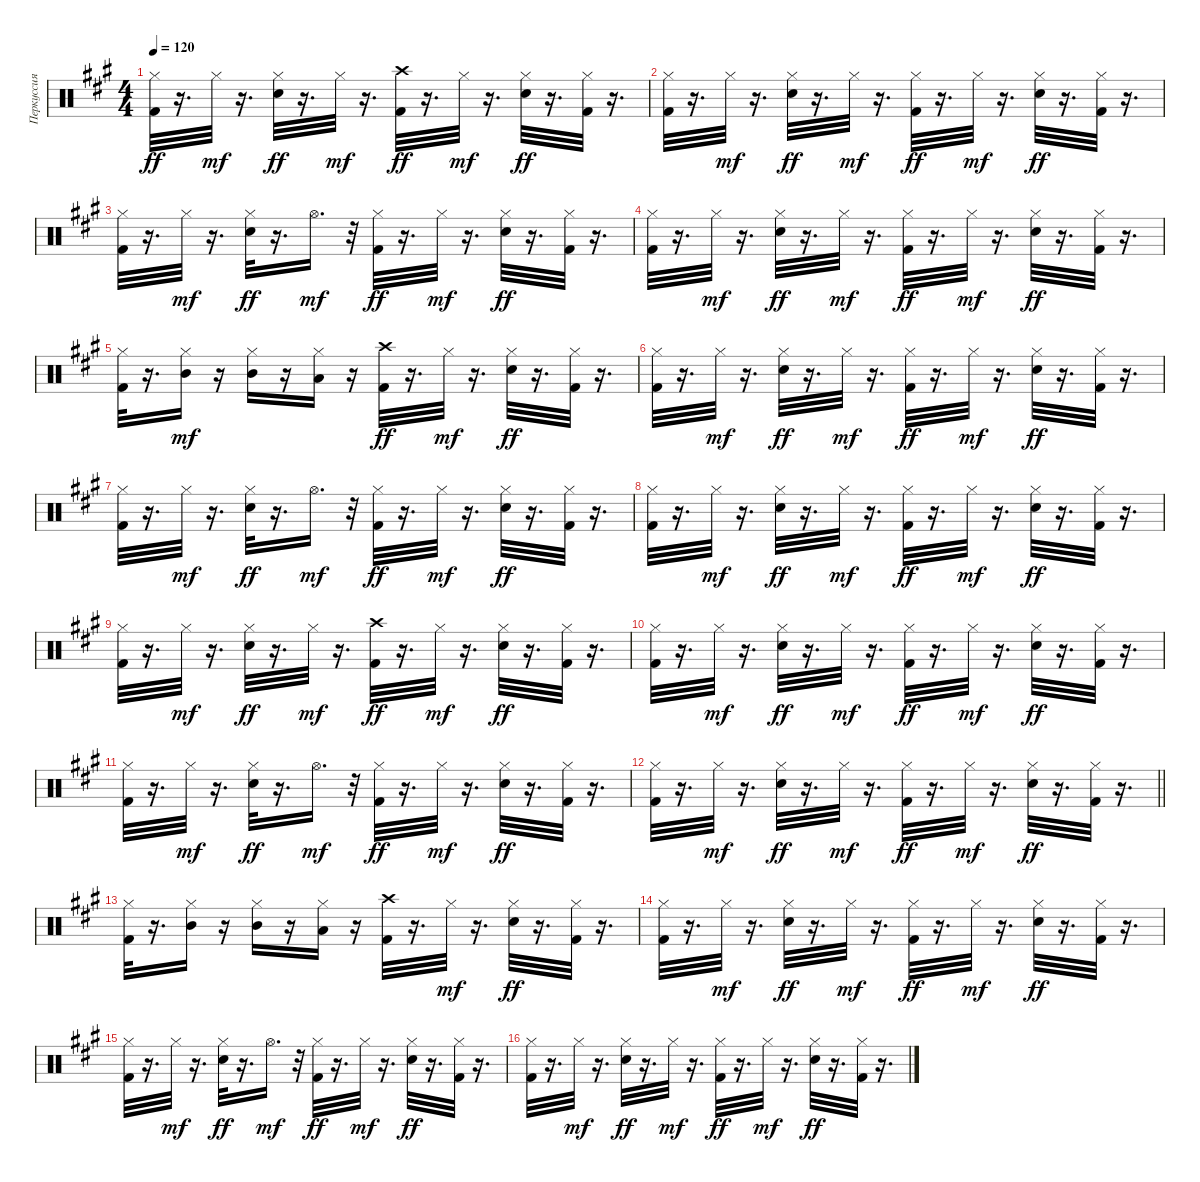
\track ("Перкуссия" "Перкуссия") {instrument percussion}
\staff {score}
\articulation defaults
\ts (4 4)
\tempo 120
\clef neutral
\ks f#minor
("Hi-Hat (closed)" "Kick (hit) 2").32{dy ff} r.16{d} "Hi-Hat (closed)".32{dy mf} r.16{d} ("Hi-Hat (closed)" "Snare (hit) 2").32{dy ff} r.16{d} "Hi-Hat (closed)".32{dy mf} r.16{d} ("Crash high (hit)" "Kick (hit) 2").32{dy ff} r.16{d} "Hi-Hat (closed)".32{dy mf} r.16{d} ("Hi-Hat (closed)" "Snare (hit) 2").32{dy ff} r.16{d} ("Hi-Hat (closed)" "Kick (hit) 2").32 r.16{d} |
("Hi-Hat (closed)" "Kick (hit) 2").32 r.16{d} "Hi-Hat (closed)".32{dy mf} r.16{d} ("Hi-Hat (closed)" "Snare (hit) 2").32{dy ff} r.16{d} "Hi-Hat (closed)".32{dy mf} r.16{d} ("Hi-Hat (closed)" "Kick (hit) 2").32{dy ff} r.16{d} "Hi-Hat (closed)".32{dy mf} r.16{d} ("Hi-Hat (closed)" "Snare (hit) 2").32{dy ff} r.16{d} ("Hi-Hat (closed)" "Kick (hit) 2").32 r.16{d} |
("Hi-Hat (closed)" "Kick (hit) 2").32 r.16{d} "Hi-Hat (closed)".32{dy mf} r.16{d} ("Hi-Hat (closed)" "Snare (hit) 2").32{dy ff} r.16{d} "Hi-Hat (open)".16{d dy mf} r.32 ("Hi-Hat (closed)" "Kick (hit) 2").32{dy ff} r.16{d} "Hi-Hat (closed)".32{dy mf} r.16{d} ("Hi-Hat (closed)" "Snare (hit) 2").32{dy ff} r.16{d} ("Hi-Hat (closed)" "Kick (hit) 2").32 r.16{d} |
("Hi-Hat (closed)" "Kick (hit) 2").32 r.16{d} "Hi-Hat (closed)".32{dy mf} r.16{d} ("Hi-Hat (closed)" "Snare (hit) 2").32{dy ff} r.16{d} "Hi-Hat (closed)".32{dy mf} r.16{d} ("Hi-Hat (closed)" "Kick (hit) 2").32{dy ff} r.16{d} "Hi-Hat (closed)".32{dy mf} r.16{d} ("Hi-Hat (closed)" "Snare (hit) 2").32{dy ff} r.16{d} ("Hi-Hat (closed)" "Kick (hit) 2").32 r.16{d} |
("Hi-Hat (closed)" "Kick (hit) 2").32 r.16{d} ("Hi-Hat (closed)" "Mid Tom (hit)").16{dy mf} r.16 ("Hi-Hat (closed)" "Mid Tom (hit)").16 r.16 ("Hi-Hat (closed)" "Low Tom (hit)").16 r.16 ("Crash high (hit)" "Kick (hit) 2").32{dy ff} r.16{d} "Hi-Hat (closed)".32{dy mf} r.16{d} ("Hi-Hat (closed)" "Snare (hit) 2").32{dy ff} r.16{d} ("Hi-Hat (closed)" "Kick (hit) 2").32 r.16{d} |
("Hi-Hat (closed)" "Kick (hit) 2").32 r.16{d} "Hi-Hat (closed)".32{dy mf} r.16{d} ("Hi-Hat (closed)" "Snare (hit) 2").32{dy ff} r.16{d} "Hi-Hat (closed)".32{dy mf} r.16{d} ("Hi-Hat (closed)" "Kick (hit) 2").32{dy ff} r.16{d} "Hi-Hat (closed)".32{dy mf} r.16{d} ("Hi-Hat (closed)" "Snare (hit) 2").32{dy ff} r.16{d} ("Hi-Hat (closed)" "Kick (hit) 2").32 r.16{d} |
("Hi-Hat (closed)" "Kick (hit) 2").32 r.16{d} "Hi-Hat (closed)".32{dy mf} r.16{d} ("Hi-Hat (closed)" "Snare (hit) 2").32{dy ff} r.16{d} "Hi-Hat (open)".16{d dy mf} r.32 ("Hi-Hat (closed)" "Kick (hit) 2").32{dy ff} r.16{d} "Hi-Hat (closed)".32{dy mf} r.16{d} ("Hi-Hat (closed)" "Snare (hit) 2").32{dy ff} r.16{d} ("Hi-Hat (closed)" "Kick (hit) 2").32 r.16{d} |
("Hi-Hat (closed)" "Kick (hit) 2").32 r.16{d} "Hi-Hat (closed)".32{dy mf} r.16{d} ("Hi-Hat (closed)" "Snare (hit) 2").32{dy ff} r.16{d} "Hi-Hat (closed)".32{dy mf} r.16{d} ("Hi-Hat (closed)" "Kick (hit) 2").32{dy ff} r.16{d} "Hi-Hat (closed)".32{dy mf} r.16{d} ("Hi-Hat (closed)" "Snare (hit) 2").32{dy ff} r.16{d} ("Hi-Hat (closed)" "Kick (hit) 2").32 r.16{d} |
("Hi-Hat (closed)" "Kick (hit) 2").32 r.16{d} "Hi-Hat (closed)".32{dy mf} r.16{d} ("Hi-Hat (closed)" "Snare (hit) 2").32{dy ff} r.16{d} "Hi-Hat (closed)".32{dy mf} r.16{d} ("Crash high (hit)" "Kick (hit) 2").32{dy ff} r.16{d} "Hi-Hat (closed)".32{dy mf} r.16{d} ("Hi-Hat (closed)" "Snare (hit) 2").32{dy ff} r.16{d} ("Hi-Hat (closed)" "Kick (hit) 2").32 r.16{d} |
("Hi-Hat (closed)" "Kick (hit) 2").32 r.16{d} "Hi-Hat (closed)".32{dy mf} r.16{d} ("Hi-Hat (closed)" "Snare (hit) 2").32{dy ff} r.16{d} "Hi-Hat (closed)".32{dy mf} r.16{d} ("Hi-Hat (closed)" "Kick (hit) 2").32{dy ff} r.16{d} "Hi-Hat (closed)".32{dy mf} r.16{d} ("Hi-Hat (closed)" "Snare (hit) 2").32{dy ff} r.16{d} ("Hi-Hat (closed)" "Kick (hit) 2").32 r.16{d} |
("Hi-Hat (closed)" "Kick (hit) 2").32 r.16{d} "Hi-Hat (closed)".32{dy mf} r.16{d} ("Hi-Hat (closed)" "Snare (hit) 2").32{dy ff} r.16{d} "Hi-Hat (open)".16{d dy mf} r.32 ("Hi-Hat (closed)" "Kick (hit) 2").32{dy ff} r.16{d} "Hi-Hat (closed)".32{dy mf} r.16{d} ("Hi-Hat (closed)" "Snare (hit) 2").32{dy ff} r.16{d} ("Hi-Hat (closed)" "Kick (hit) 2").32 r.16{d} |
\barLineRight lightlight
("Hi-Hat (closed)" "Kick (hit) 2").32 r.16{d} "Hi-Hat (closed)".32{dy mf} r.16{d} ("Hi-Hat (closed)" "Snare (hit) 2").32{dy ff} r.16{d} "Hi-Hat (closed)".32{dy mf} r.16{d} ("Hi-Hat (closed)" "Kick (hit) 2").32{dy ff} r.16{d} "Hi-Hat (closed)".32{dy mf} r.16{d} ("Hi-Hat (closed)" "Snare (hit) 2").32{dy ff} r.16{d} ("Hi-Hat (closed)" "Kick (hit) 2").32 r.16{d} |
("Hi-Hat (closed)" "Kick (hit) 2").32 r.16{d} ("Hi-Hat (closed)" "Mid Tom (hit)").16 r.16 ("Hi-Hat (closed)" "Mid Tom (hit)").16 r.16 ("Hi-Hat (closed)" "Low Tom (hit)").16 r.16 ("Crash high (hit)" "Kick (hit) 2").32 r.16{d} "Hi-Hat (closed)".32{dy mf} r.16{d} ("Hi-Hat (closed)" "Snare (hit) 2").32{dy ff} r.16{d} ("Hi-Hat (closed)" "Kick (hit) 2").32 r.16{d} |
("Hi-Hat (closed)" "Kick (hit) 2").32 r.16{d} "Hi-Hat (closed)".32{dy mf} r.16{d} ("Hi-Hat (closed)" "Snare (hit) 2").32{dy ff} r.16{d} "Hi-Hat (closed)".32{dy mf} r.16{d} ("Hi-Hat (closed)" "Kick (hit) 2").32{dy ff} r.16{d} "Hi-Hat (closed)".32{dy mf} r.16{d} ("Hi-Hat (closed)" "Snare (hit) 2").32{dy ff} r.16{d} ("Hi-Hat (closed)" "Kick (hit) 2").32 r.16{d} |
("Hi-Hat (closed)" "Kick (hit) 2").32 r.16{d} "Hi-Hat (closed)".32{dy mf} r.16{d} ("Hi-Hat (closed)" "Snare (hit) 2").32{dy ff} r.16{d} "Hi-Hat (open)".16{d dy mf} r.32 ("Hi-Hat (closed)" "Kick (hit) 2").32{dy ff} r.16{d} "Hi-Hat (closed)".32{dy mf} r.16{d} ("Hi-Hat (closed)" "Snare (hit) 2").32{dy ff} r.16{d} ("Hi-Hat (closed)" "Kick (hit) 2").32 r.16{d} |
("Hi-Hat (closed)" "Kick (hit) 2").32 r.16{d} "Hi-Hat (closed)".32{dy mf} r.16{d} ("Hi-Hat (closed)" "Snare (hit) 2").32{dy ff} r.16{d} "Hi-Hat (closed)".32{dy mf} r.16{d} ("Hi-Hat (closed)" "Kick (hit) 2").32{dy ff} r.16{d} "Hi-Hat (closed)".32{dy mf} r.16{d} ("Hi-Hat (closed)" "Snare (hit) 2").32{dy ff} r.16{d} ("Hi-Hat (closed)" "Kick (hit) 2").32 r.16{d}
